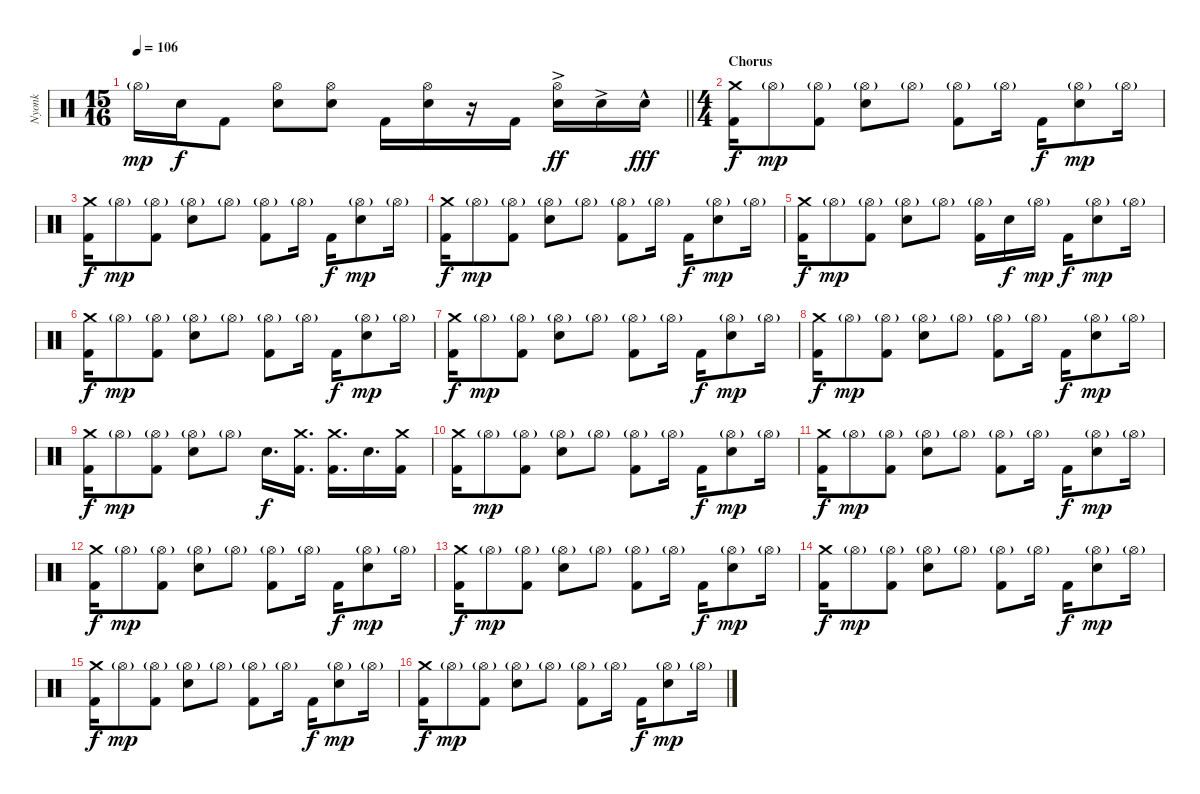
\track ("Nyonk" "Nyonk") {instrument percussion}
\staff {score}
\articulation defaults
\ts (15 16)
\tempo 106
\clef neutral
\barLineRight lightlight
\ks c "Hi-Hat (open)"{g}.16{dy mp} "Electric Snare (hit)".16{dy f} "Kick (hit) 2".8
("Hi-Hat (open)" "Electric Snare (hit)").8 ("Hi-Hat (open)" "Electric Snare (hit)").8 "Kick (hit) 2".16 ("Hi-Hat (open)" "Electric Snare (hit)").16 r.16 "Kick (hit) 2".16 ("Hi-Hat (open)" "Electric Snare (hit)"{ac}).16{dy ff} "Electric Snare (hit)"{ac}.16 "Electric Snare (hit)"{hac}.16{dy fff} |
\ts (4 4)
\section ("" "Chorus")
("Crash medium (hit)" "Kick (hit) 2").16{dy f} "Hi-Hat (open)"{g}.8{dy mp} ("Hi-Hat (open)"{g} "Kick (hit) 2").8 ("Hi-Hat (open)"{g} "Electric Snare (hit)").8 "Hi-Hat (open)"{g}.8 ("Hi-Hat (open)"{g} "Kick (hit) 2").8 "Hi-Hat (open)"{g}.16 "Kick (hit) 2".16{dy f} ("Hi-Hat (open)"{g} "Electric Snare (hit)").8{dy mp} "Hi-Hat (open)"{g}.16 |
("Crash medium (hit)" "Kick (hit) 2").16{dy f} "Hi-Hat (open)"{g}.8{dy mp} ("Hi-Hat (open)"{g} "Kick (hit) 2").8 ("Hi-Hat (open)"{g} "Electric Snare (hit)").8 "Hi-Hat (open)"{g}.8 ("Hi-Hat (open)"{g} "Kick (hit) 2").8 "Hi-Hat (open)"{g}.16 "Kick (hit) 2".16{dy f} ("Hi-Hat (open)"{g} "Electric Snare (hit)").8{dy mp} "Hi-Hat (open)"{g}.16 |
("Crash medium (hit)" "Kick (hit) 2").16{dy f} "Hi-Hat (open)"{g}.8{dy mp} ("Hi-Hat (open)"{g} "Kick (hit) 2").8 ("Hi-Hat (open)"{g} "Electric Snare (hit)").8 "Hi-Hat (open)"{g}.8 ("Hi-Hat (open)"{g} "Kick (hit) 2").8 "Hi-Hat (open)"{g}.16 "Kick (hit) 2".16{dy f} ("Hi-Hat (open)"{g} "Electric Snare (hit)").8{dy mp} "Hi-Hat (open)"{g}.16 |
("Crash medium (hit)" "Kick (hit) 2").16{dy f} "Hi-Hat (open)"{g}.8{dy mp} ("Hi-Hat (open)"{g} "Kick (hit) 2").8 ("Hi-Hat (open)"{g} "Electric Snare (hit)").8 "Hi-Hat (open)"{g}.8 ("Hi-Hat (open)"{g} "Kick (hit) 2").16 "Electric Snare (hit)".16{dy f} "Hi-Hat (open)"{g}.16{dy mp} "Kick (hit) 2".16{dy f} ("Hi-Hat (open)"{g} "Electric Snare (hit)").8{dy mp} "Hi-Hat (open)"{g}.16 |
("Crash medium (hit)" "Kick (hit) 2").16{dy f} "Hi-Hat (open)"{g}.8{dy mp} ("Hi-Hat (open)"{g} "Kick (hit) 2").8 ("Hi-Hat (open)"{g} "Electric Snare (hit)").8 "Hi-Hat (open)"{g}.8 ("Hi-Hat (open)"{g} "Kick (hit) 2").8 "Hi-Hat (open)"{g}.16 "Kick (hit) 2".16{dy f} ("Hi-Hat (open)"{g} "Electric Snare (hit)").8{dy mp} "Hi-Hat (open)"{g}.16 |
("Crash medium (hit)" "Kick (hit) 2").16{dy f} "Hi-Hat (open)"{g}.8{dy mp} ("Hi-Hat (open)"{g} "Kick (hit) 2").8 ("Hi-Hat (open)"{g} "Electric Snare (hit)").8 "Hi-Hat (open)"{g}.8 ("Hi-Hat (open)"{g} "Kick (hit) 2").8 "Hi-Hat (open)"{g}.16 "Kick (hit) 2".16{dy f} ("Hi-Hat (open)"{g} "Electric Snare (hit)").8{dy mp} "Hi-Hat (open)"{g}.16 |
("Crash medium (hit)" "Kick (hit) 2").16{dy f} "Hi-Hat (open)"{g}.8{dy mp} ("Hi-Hat (open)"{g} "Kick (hit) 2").8 ("Hi-Hat (open)"{g} "Electric Snare (hit)").8 "Hi-Hat (open)"{g}.8 ("Hi-Hat (open)"{g} "Kick (hit) 2").8 "Hi-Hat (open)"{g}.16 "Kick (hit) 2".16{dy f} ("Hi-Hat (open)"{g} "Electric Snare (hit)").8{dy mp} "Hi-Hat (open)"{g}.16 |
("Crash medium (hit)" "Kick (hit) 2").16{dy f} "Hi-Hat (open)"{g}.8{dy mp} ("Hi-Hat (open)"{g} "Kick (hit) 2").8 ("Hi-Hat (open)"{g} "Electric Snare (hit)").8 "Hi-Hat (open)"{g}.8 "Electric Snare (hit)".16{d dy f} ("Crash medium (hit)" "Kick (hit) 2").16{d} ("Crash medium (hit)" "Kick (hit) 2").16{d} "Electric Snare (hit)".16{d} ("Crash medium (hit)" "Kick (hit) 2").16 |
("Crash medium (hit)" "Kick (hit) 2").16 "Hi-Hat (open)"{g}.8{dy mp} ("Hi-Hat (open)"{g} "Kick (hit) 2").8 ("Hi-Hat (open)"{g} "Electric Snare (hit)").8 "Hi-Hat (open)"{g}.8 ("Hi-Hat (open)"{g} "Kick (hit) 2").8 "Hi-Hat (open)"{g}.16 "Kick (hit) 2".16{dy f} ("Hi-Hat (open)"{g} "Electric Snare (hit)").8{dy mp} "Hi-Hat (open)"{g}.16 |
("Crash medium (hit)" "Kick (hit) 2").16{dy f} "Hi-Hat (open)"{g}.8{dy mp} ("Hi-Hat (open)"{g} "Kick (hit) 2").8 ("Hi-Hat (open)"{g} "Electric Snare (hit)").8 "Hi-Hat (open)"{g}.8 ("Hi-Hat (open)"{g} "Kick (hit) 2").8 "Hi-Hat (open)"{g}.16 "Kick (hit) 2".16{dy f} ("Hi-Hat (open)"{g} "Electric Snare (hit)").8{dy mp} "Hi-Hat (open)"{g}.16 |
("Crash medium (hit)" "Kick (hit) 2").16{dy f} "Hi-Hat (open)"{g}.8{dy mp} ("Hi-Hat (open)"{g} "Kick (hit) 2").8 ("Hi-Hat (open)"{g} "Electric Snare (hit)").8 "Hi-Hat (open)"{g}.8 ("Hi-Hat (open)"{g} "Kick (hit) 2").8 "Hi-Hat (open)"{g}.16 "Kick (hit) 2".16{dy f} ("Hi-Hat (open)"{g} "Electric Snare (hit)").8{dy mp} "Hi-Hat (open)"{g}.16 |
("Crash medium (hit)" "Kick (hit) 2").16{dy f} "Hi-Hat (open)"{g}.8{dy mp} ("Hi-Hat (open)"{g} "Kick (hit) 2").8 ("Hi-Hat (open)"{g} "Electric Snare (hit)").8 "Hi-Hat (open)"{g}.8 ("Hi-Hat (open)"{g} "Kick (hit) 2").8 "Hi-Hat (open)"{g}.16 "Kick (hit) 2".16{dy f} ("Hi-Hat (open)"{g} "Electric Snare (hit)").8{dy mp} "Hi-Hat (open)"{g}.16 |
("Crash medium (hit)" "Kick (hit) 2").16{dy f} "Hi-Hat (open)"{g}.8{dy mp} ("Hi-Hat (open)"{g} "Kick (hit) 2").8 ("Hi-Hat (open)"{g} "Electric Snare (hit)").8 "Hi-Hat (open)"{g}.8 ("Hi-Hat (open)"{g} "Kick (hit) 2").8 "Hi-Hat (open)"{g}.16 "Kick (hit) 2".16{dy f} ("Hi-Hat (open)"{g} "Electric Snare (hit)").8{dy mp} "Hi-Hat (open)"{g}.16 |
("Crash medium (hit)" "Kick (hit) 2").16{dy f} "Hi-Hat (open)"{g}.8{dy mp} ("Hi-Hat (open)"{g} "Kick (hit) 2").8 ("Hi-Hat (open)"{g} "Electric Snare (hit)").8 "Hi-Hat (open)"{g}.8 ("Hi-Hat (open)"{g} "Kick (hit) 2").8 "Hi-Hat (open)"{g}.16 "Kick (hit) 2".16{dy f} ("Hi-Hat (open)"{g} "Electric Snare (hit)").8{dy mp} "Hi-Hat (open)"{g}.16 |
("Crash medium (hit)" "Kick (hit) 2").16{dy f} "Hi-Hat (open)"{g}.8{dy mp} ("Hi-Hat (open)"{g} "Kick (hit) 2").8 ("Hi-Hat (open)"{g} "Electric Snare (hit)").8 "Hi-Hat (open)"{g}.8 ("Hi-Hat (open)"{g} "Kick (hit) 2").8 "Hi-Hat (open)"{g}.16 "Kick (hit) 2".16{dy f} ("Hi-Hat (open)"{g} "Electric Snare (hit)").8{dy mp} "Hi-Hat (open)"{g}.16
